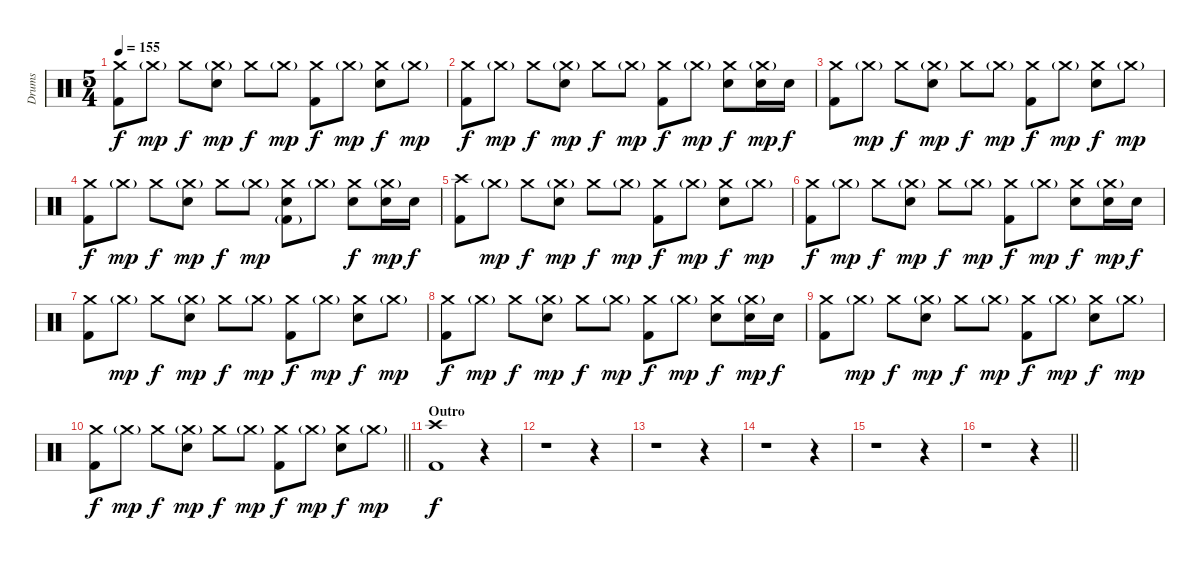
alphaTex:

\track ("Drums" "Drums") {instrument percussion}
\staff {score}
\articulation defaults
\ts (5 4)
\tempo 155
\clef neutral
\ks c
("Crash medium (hit)" "Kick (hit) 2").8{dy f} "Crash medium (hit)"{g}.8{dy mp} "Crash medium (hit)".8{dy f} ("Crash medium (hit)"{g} "Electric Snare (hit)").8{dy mp} "Crash medium (hit)".8{dy f} "Crash medium (hit)"{g}.8{dy mp} ("Crash medium (hit)" "Kick (hit) 2").8{dy f} "Crash medium (hit)"{g}.8{dy mp} ("Crash medium (hit)" "Electric Snare (hit)").8{dy f} "Crash medium (hit)"{g}.8{dy mp} |
("Crash medium (hit)" "Kick (hit) 2").8{dy f} "Crash medium (hit)"{g}.8{dy mp} "Crash medium (hit)".8{dy f} ("Crash medium (hit)"{g} "Electric Snare (hit)").8{dy mp} "Crash medium (hit)".8{dy f} "Crash medium (hit)"{g}.8{dy mp} ("Crash medium (hit)" "Kick (hit) 2").8{dy f} "Crash medium (hit)"{g}.8{dy mp} ("Crash medium (hit)" "Electric Snare (hit)").8{dy f} ("Crash medium (hit)"{g} "Electric Snare (hit)").16{dy mp} "Electric Snare (hit)".16{dy f} |
("Crash medium (hit)" "Kick (hit) 2").8 "Crash medium (hit)"{g}.8{dy mp} "Crash medium (hit)".8{dy f} ("Crash medium (hit)"{g} "Electric Snare (hit)").8{dy mp} "Crash medium (hit)".8{dy f} "Crash medium (hit)"{g}.8{dy mp} ("Crash medium (hit)" "Kick (hit) 2").8{dy f} "Crash medium (hit)"{g}.8{dy mp} ("Crash medium (hit)" "Electric Snare (hit)").8{dy f} "Crash medium (hit)"{g}.8{dy mp} |
("Crash medium (hit)" "Kick (hit) 2").8{dy f} "Crash medium (hit)"{g}.8{dy mp} "Crash medium (hit)".8{dy f} ("Crash medium (hit)"{g} "Electric Snare (hit)").8{dy mp} "Crash medium (hit)".8{dy f} "Crash medium (hit)"{g}.8{dy mp} ("Crash medium (hit)" "Electric Snare (hit)" "Kick (hit) 2"{g}).8 "Crash medium (hit)"{g}.8 ("Crash medium (hit)" "Electric Snare (hit)").8{dy f} ("Crash medium (hit)"{g} "Electric Snare (hit)").16{dy mp} "Electric Snare (hit)".16{dy f} |
("Crash high (hit)" "Kick (hit) 2").8 "Crash medium (hit)"{g}.8{dy mp} "Crash medium (hit)".8{dy f} ("Crash medium (hit)"{g} "Electric Snare (hit)").8{dy mp} "Crash medium (hit)".8{dy f} "Crash medium (hit)"{g}.8{dy mp} ("Crash medium (hit)" "Kick (hit) 2").8{dy f} "Crash medium (hit)"{g}.8{dy mp} ("Crash medium (hit)" "Electric Snare (hit)").8{dy f} "Crash medium (hit)"{g}.8{dy mp} |
("Crash medium (hit)" "Kick (hit) 2").8{dy f} "Crash medium (hit)"{g}.8{dy mp} "Crash medium (hit)".8{dy f} ("Crash medium (hit)"{g} "Electric Snare (hit)").8{dy mp} "Crash medium (hit)".8{dy f} "Crash medium (hit)"{g}.8{dy mp} ("Crash medium (hit)" "Kick (hit) 2").8{dy f} "Crash medium (hit)"{g}.8{dy mp} ("Crash medium (hit)" "Electric Snare (hit)").8{dy f} ("Crash medium (hit)"{g} "Electric Snare (hit)").16{dy mp} "Electric Snare (hit)".16{dy f} |
("Crash medium (hit)" "Kick (hit) 2").8 "Crash medium (hit)"{g}.8{dy mp} "Crash medium (hit)".8{dy f} ("Crash medium (hit)"{g} "Electric Snare (hit)").8{dy mp} "Crash medium (hit)".8{dy f} "Crash medium (hit)"{g}.8{dy mp} ("Crash medium (hit)" "Kick (hit) 2").8{dy f} "Crash medium (hit)"{g}.8{dy mp} ("Crash medium (hit)" "Electric Snare (hit)").8{dy f} "Crash medium (hit)"{g}.8{dy mp} |
("Crash medium (hit)" "Kick (hit) 2").8{dy f} "Crash medium (hit)"{g}.8{dy mp} "Crash medium (hit)".8{dy f} ("Crash medium (hit)"{g} "Electric Snare (hit)").8{dy mp} "Crash medium (hit)".8{dy f} "Crash medium (hit)"{g}.8{dy mp} ("Crash medium (hit)" "Kick (hit) 2").8{dy f} "Crash medium (hit)"{g}.8{dy mp} ("Crash medium (hit)" "Electric Snare (hit)").8{dy f} ("Crash medium (hit)"{g} "Electric Snare (hit)").16{dy mp} "Electric Snare (hit)".16{dy f} |
("Crash medium (hit)" "Kick (hit) 2").8 "Crash medium (hit)"{g}.8{dy mp} "Crash medium (hit)".8{dy f} ("Crash medium (hit)"{g} "Electric Snare (hit)").8{dy mp} "Crash medium (hit)".8{dy f} "Crash medium (hit)"{g}.8{dy mp} ("Crash medium (hit)" "Kick (hit) 2").8{dy f} "Crash medium (hit)"{g}.8{dy mp} ("Crash medium (hit)" "Electric Snare (hit)").8{dy f} "Crash medium (hit)"{g}.8{dy mp} |
\barLineRight lightlight
("Crash medium (hit)" "Kick (hit) 2").8{dy f} "Crash medium (hit)"{g}.8{dy mp} "Crash medium (hit)".8{dy f} ("Crash medium (hit)"{g} "Electric Snare (hit)").8{dy mp} "Crash medium (hit)".8{dy f} "Crash medium (hit)"{g}.8{dy mp} ("Crash medium (hit)" "Kick (hit) 2").8{dy f} "Crash medium (hit)"{g}.8{dy mp} ("Crash medium (hit)" "Electric Snare (hit)").8{dy f} "Crash medium (hit)"{g}.8{dy mp} |
\section ("" "Outro")
("Crash high (hit)" "Kick (hit) 2").1{dy f} r.4 |
r.1 r.4 |
r.1 r.4 |
r.1 r.4 |
r.1 r.4 |
\barLineRight lightlight
r.1 r.4
